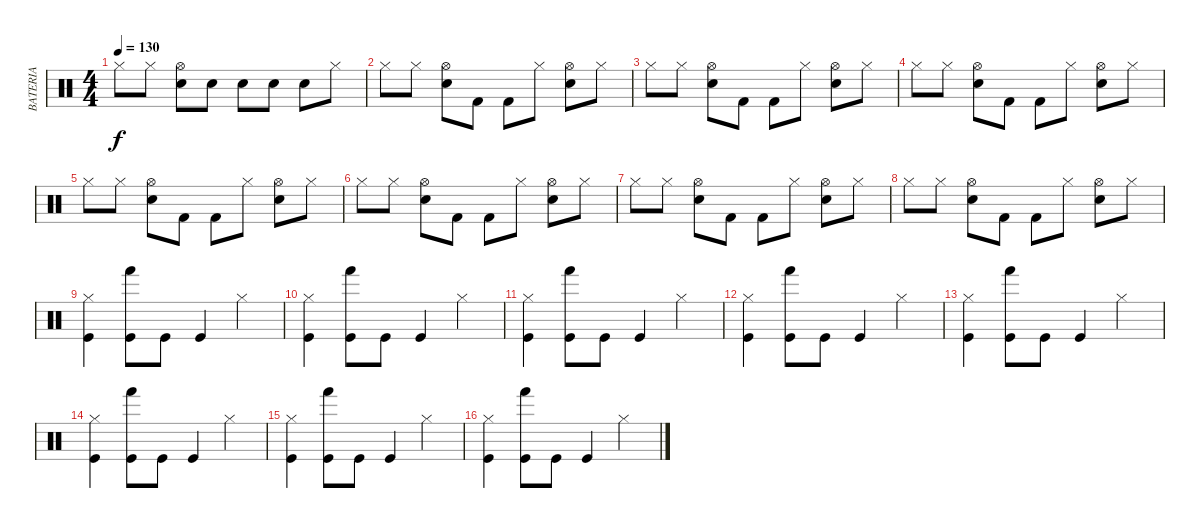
\track ("BATERIA" "BATERIA") {mute instrument percussion}
\staff {score}
\articulation defaults
\ts (4 4)
\tempo 130
\clef neutral
\ks c "Hi-Hat (closed)".8{dy f} "Hi-Hat (closed)".8
("Snare (hit) 2" "Hi-Hat (open)").8 "Electric Snare (hit)".8 "Electric Snare (hit)".8 "Electric Snare (hit)".8 "Electric Snare (hit)".8 "Hi-Hat (closed)".8 |
"Hi-Hat (closed)".8 "Hi-Hat (closed)".8 ("Snare (hit) 2" "Hi-Hat (open)").8 "Kick (hit) 2".8 "Kick (hit) 2".8 "Hi-Hat (closed)".8 ("Snare (hit) 2" "Hi-Hat (open)").8 "Hi-Hat (closed)".8 |
"Hi-Hat (closed)".8 "Hi-Hat (closed)".8 ("Snare (hit) 2" "Hi-Hat (open)").8 "Kick (hit) 2".8 "Kick (hit) 2".8 "Hi-Hat (closed)".8 ("Snare (hit) 2" "Hi-Hat (open)").8 "Hi-Hat (closed)".8 |
"Hi-Hat (closed)".8 "Hi-Hat (closed)".8 ("Snare (hit) 2" "Hi-Hat (open)").8 "Kick (hit) 2".8 "Kick (hit) 2".8 "Hi-Hat (closed)".8 ("Snare (hit) 2" "Hi-Hat (open)").8 "Hi-Hat (closed)".8 |
"Hi-Hat (closed)".8 "Hi-Hat (closed)".8 ("Snare (hit) 2" "Hi-Hat (open)").8 "Kick (hit) 2".8 "Kick (hit) 2".8 "Hi-Hat (closed)".8 ("Snare (hit) 2" "Hi-Hat (open)").8 "Hi-Hat (closed)".8 |
"Hi-Hat (closed)".8 "Hi-Hat (closed)".8 ("Snare (hit) 2" "Hi-Hat (open)").8 "Kick (hit) 2".8 "Kick (hit) 2".8 "Hi-Hat (closed)".8 ("Snare (hit) 2" "Hi-Hat (open)").8 "Hi-Hat (closed)".8 |
"Hi-Hat (closed)".8 "Hi-Hat (closed)".8 ("Snare (hit) 2" "Hi-Hat (open)").8 "Kick (hit) 2".8 "Kick (hit) 2".8 "Hi-Hat (closed)".8 ("Snare (hit) 2" "Hi-Hat (open)").8 "Hi-Hat (closed)".8 |
"Hi-Hat (closed)".8 "Hi-Hat (closed)".8 ("Snare (hit) 2" "Hi-Hat (open)").8 "Kick (hit) 2".8 "Kick (hit) 2".8 "Hi-Hat (closed)".8 ("Snare (hit) 2" "Hi-Hat (open)").8 "Hi-Hat (closed)".8 |
("Hi-Hat (closed)" "Kick (hit)").4 ("Kick (hit)" "Hand (hit)").8 "Kick (hit)".8 "Kick (hit)".4 "Hi-Hat (closed)".4 |
("Hi-Hat (closed)" "Kick (hit)").4 ("Kick (hit)" "Hand (hit)").8 "Kick (hit)".8 "Kick (hit)".4 "Hi-Hat (closed)".4 |
("Hi-Hat (closed)" "Kick (hit)").4 ("Kick (hit)" "Hand (hit)").8 "Kick (hit)".8 "Kick (hit)".4 "Hi-Hat (closed)".4 |
("Hi-Hat (closed)" "Kick (hit)").4 ("Kick (hit)" "Hand (hit)").8 "Kick (hit)".8 "Kick (hit)".4 "Hi-Hat (closed)".4 |
("Hi-Hat (closed)" "Kick (hit)").4 ("Kick (hit)" "Hand (hit)").8 "Kick (hit)".8 "Kick (hit)".4 "Hi-Hat (closed)".4 |
("Hi-Hat (closed)" "Kick (hit)").4 ("Kick (hit)" "Hand (hit)").8 "Kick (hit)".8 "Kick (hit)".4 "Hi-Hat (closed)".4 |
("Hi-Hat (closed)" "Kick (hit)").4 ("Kick (hit)" "Hand (hit)").8 "Kick (hit)".8 "Kick (hit)".4 "Hi-Hat (closed)".4 |
("Hi-Hat (closed)" "Kick (hit)").4 ("Kick (hit)" "Hand (hit)").8 "Kick (hit)".8 "Kick (hit)".4 "Hi-Hat (closed)".4
